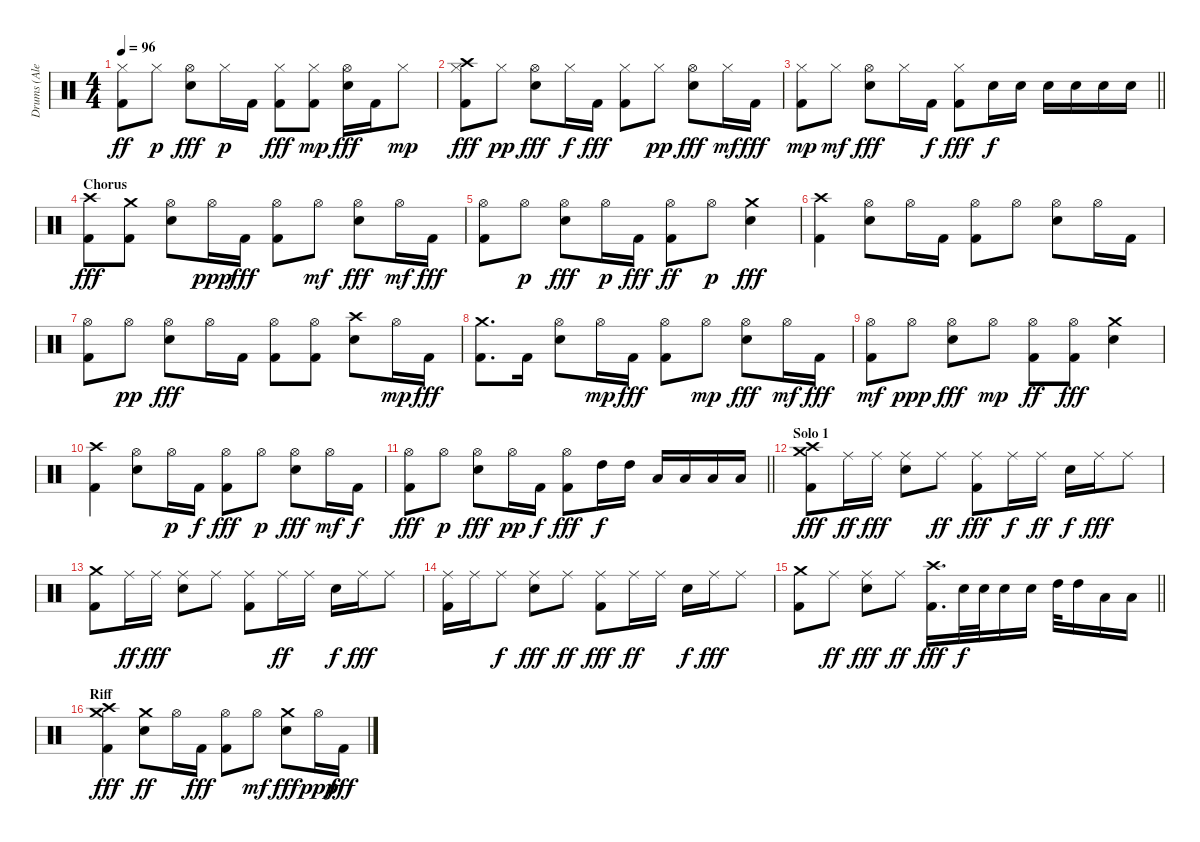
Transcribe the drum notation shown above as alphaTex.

\track ("Drums (Alex Van Halen)" "Drums (Ale") {instrument percussion}
\staff {score}
\articulation defaults
\ts (4 4)
\tempo 96
\clef neutral
\ks c
("Kick (hit) 2" "Hi-Hat (closed)").8{dy ff} "Hi-Hat (closed)".8{dy p} ("Hi-Hat (open)" "Snare (hit) 2").8{dy fff} "Hi-Hat (closed)".16{dy p} "Kick (hit) 2".16 ("Hi-Hat (closed)" "Kick (hit) 2").8{dy fff} ("Kick (hit) 2" "Hi-Hat (closed)").8{dy mp} ("Hi-Hat (open)" "Snare (hit) 2").16{dy fff} "Kick (hit) 2".16 "Hi-Hat (closed)".8{dy mp} |
("Crash high (hit)" "Kick (hit) 2" "Hi-Hat (closed)").8{dy fff} "Hi-Hat (closed)".8{dy pp} ("Hi-Hat (open)" "Snare (hit) 2").8{dy fff} "Hi-Hat (closed)".16{dy f} "Kick (hit) 2".16{dy fff} ("Hi-Hat (closed)" "Kick (hit) 2").8 "Hi-Hat (closed)".8{dy pp} ("Snare (hit) 2" "Hi-Hat (open)").8{dy fff} "Hi-Hat (closed)".16{dy mf} "Kick (hit) 2".16{dy fff} |
\barLineRight lightlight
("Hi-Hat (closed)" "Kick (hit) 2").8{dy mp} "Hi-Hat (closed)".8{dy mf} ("Hi-Hat (open)" "Snare (hit) 2").8{dy fff} "Hi-Hat (closed)".16 "Kick (hit) 2".16{dy f} ("Hi-Hat (closed)" "Kick (hit) 2").8{dy fff} "Snare (hit) 2".16{dy f} "Snare (hit) 2".16 "Snare (hit) 2".16 "Snare (hit) 2".16 "Snare (hit) 2".16 "Snare (hit) 2".16 |
\section ("" "Chorus")
("Kick (hit) 2" "Crash high (hit)").8{dy fff} ("Kick (hit) 2" "Crash medium (hit)").8 ("Snare (hit) 2" "Hi-Hat (open)").8 "Hi-Hat (open)".16{dy ppp} "Kick (hit) 2".16{dy fff} ("Hi-Hat (open)" "Kick (hit) 2").8 "Hi-Hat (open)".8{dy mf} ("Snare (hit) 2" "Hi-Hat (open)").8{dy fff} "Hi-Hat (open)".16{dy mf} "Kick (hit) 2".16{dy fff} |
("Kick (hit) 2" "Hi-Hat (open)").8 "Hi-Hat (open)".8{dy p} ("Hi-Hat (open)" "Snare (hit) 2").8{dy fff} "Hi-Hat (open)".16{dy p} "Kick (hit) 2".16{dy fff} ("Kick (hit) 2" "Hi-Hat (open)").8{dy ff} "Hi-Hat (open)".8{dy p} ("Snare (hit) 2" "Crash medium (hit)").4{dy fff} |
("Crash high (hit)" "Kick (hit) 2").4 ("Hi-Hat (open)" "Snare (hit) 2").8 "Hi-Hat (open)".16 "Kick (hit) 2".16 ("Hi-Hat (open)" "Kick (hit) 2").8 "Hi-Hat (open)".8 ("Hi-Hat (open)" "Snare (hit) 2").8 "Hi-Hat (open)".16 "Kick (hit) 2".16 |
("Hi-Hat (open)" "Kick (hit) 2").8 "Hi-Hat (open)".8{dy pp} ("Hi-Hat (open)" "Snare (hit) 2").8{dy fff} "Hi-Hat (open)".16 "Kick (hit) 2".16 ("Hi-Hat (open)" "Kick (hit) 2").8 ("Hi-Hat (open)" "Kick (hit) 2").8 ("Snare (hit) 2" "Crash high (hit)").8 "Hi-Hat (open)".16{dy mp} "Kick (hit) 2".16{dy fff} |
("Kick (hit) 2" "Crash medium (hit)").8{d} "Kick (hit) 2".16 ("Hi-Hat (open)" "Snare (hit) 2").8 "Hi-Hat (open)".16{dy mp} "Kick (hit) 2".16{dy fff} ("Hi-Hat (open)" "Kick (hit) 2").8 "Hi-Hat (open)".8{dy mp} ("Hi-Hat (open)" "Snare (hit) 2").8{dy fff} "Hi-Hat (open)".16{dy mf} "Kick (hit) 2".16{dy fff} |
("Hi-Hat (open)" "Kick (hit) 2").8{dy mf} "Hi-Hat (open)".8{dy ppp} ("Hi-Hat (open)" "Snare (hit) 2").8{dy fff} "Hi-Hat (open)".8{dy mp} ("Hi-Hat (open)" "Kick (hit) 2").8{dy ff} ("Hi-Hat (open)" "Kick (hit) 2").8{dy fff} ("Crash medium (hit)" "Snare (hit) 2").4 |
("Crash high (hit)" "Kick (hit) 2").4 ("Hi-Hat (open)" "Snare (hit) 2").8 "Hi-Hat (open)".16{dy p} "Kick (hit) 2".16{dy f} ("Hi-Hat (open)" "Kick (hit) 2").8{dy fff} "Hi-Hat (open)".8{dy p} ("Hi-Hat (open)" "Snare (hit) 2").8{dy fff} "Hi-Hat (open)".16{dy mf} "Kick (hit) 2".16{dy f} |
\barLineRight lightlight
("Hi-Hat (open)" "Kick (hit) 2").8{dy fff} "Hi-Hat (open)".8{dy p} ("Hi-Hat (open)" "Snare (hit) 2").8{dy fff} "Hi-Hat (open)".16{dy pp} "Kick (hit) 2".16{dy f} ("Hi-Hat (open)" "Kick (hit) 2").8{dy fff} "High Tom (hit)".16{dy f} "High Tom (hit)".16 "Low Tom (hit)".16 "Low Tom (hit)".16 "Low Floor Tom (hit)".16 "Low Floor Tom (hit)".16 |
\section ("" "Solo 1")
("Crash medium (hit)" "Crash high (hit)" "Kick (hit) 2").8{dy fff} "Ride (middle)".16{dy ff} "Ride (middle)".16{dy fff} ("Ride (middle)" "Snare (hit) 2").8 "Ride (middle)".8{dy ff} ("Ride (middle)" "Kick (hit) 2").8{dy fff} "Ride (middle)".16{dy f} "Ride (middle)".16{dy ff} "Snare (hit) 2".16{dy f} "Ride (middle)".16{dy fff} "Ride (middle)".8 |
("Crash medium (hit)" "Kick (hit) 2").8 "Ride (middle)".16{dy ff} "Ride (middle)".16{dy fff} ("Ride (middle)" "Snare (hit) 2").8 "Ride (middle)".8 ("Ride (middle)" "Kick (hit) 2").8 "Ride (middle)".16{dy ff} "Ride (middle)".16 "Snare (hit) 2".16{dy f} "Ride (middle)".16{dy fff} "Ride (middle)".8 |
("Ride (middle)" "Kick (hit) 2").16 "Ride (middle)".16 "Ride (middle)".8{dy f} ("Ride (middle)" "Snare (hit) 2").8{dy fff} "Ride (middle)".8{dy ff} ("Ride (middle)" "Kick (hit) 2").8{dy fff} "Ride (middle)".16{dy ff} "Ride (middle)".16 "Snare (hit) 2".16{dy f} "Ride (middle)".16{dy fff} "Ride (middle)".8 |
\barLineRight lightlight
("Crash medium (hit)" "Kick (hit) 2").8 "Ride (middle)".8{dy ff} ("Ride (middle)" "Snare (hit) 2").8{dy fff} "Ride (middle)".8{dy ff} ("Crash high (hit)" "Kick (hit) 2").16{d dy fff} "Snare (hit) 2".32{dy f} "Snare (hit) 2".32 "Snare (hit) 2".16 "Snare (hit) 2".16 "High Tom (hit)".32 "High Tom (hit)".16 "Low Tom (hit)".16 "Low Tom (hit)".16 |
\section ("" "Riff")
("Crash high (hit)" "Crash medium (hit)" "Kick (hit) 2").4{dy fff} ("Snare (hit) 2" "Crash medium (hit)").8{dy ff} "Hi-Hat (open)".16 "Kick (hit) 2".16{dy fff} ("Hi-Hat (open)" "Kick (hit) 2").8 "Hi-Hat (open)".8{dy mf} ("Crash medium (hit)" "Snare (hit) 2").8{dy fff} "Hi-Hat (open)".16{dy ppp} "Kick (hit) 2".16{dy fff}
